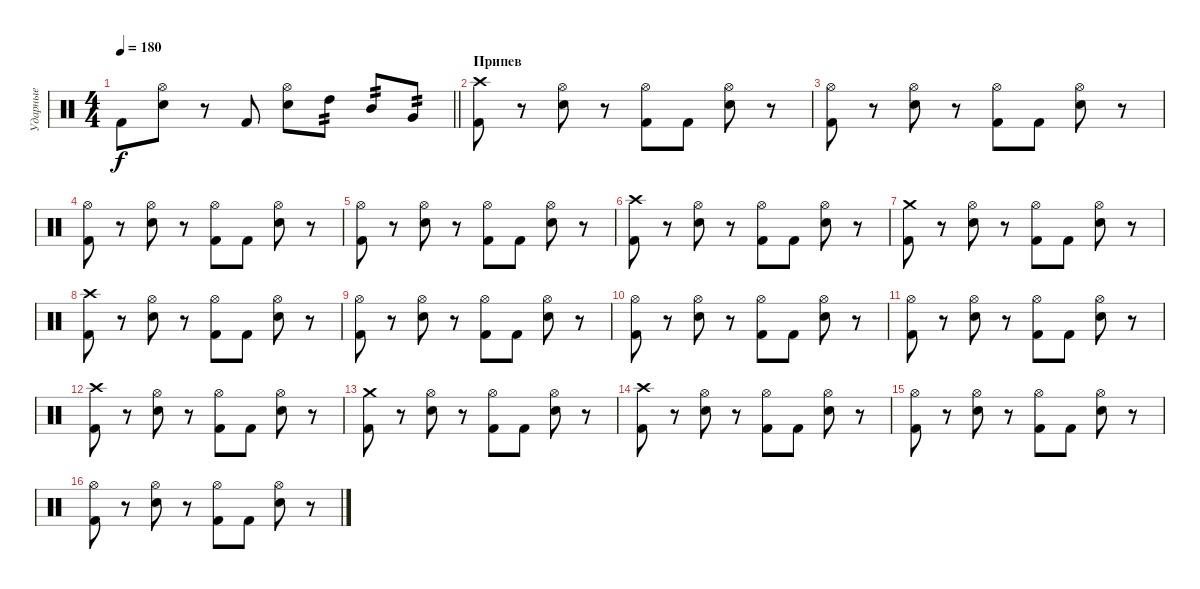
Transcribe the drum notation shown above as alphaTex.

\track ("Ударные" "Ударные") {instrument percussion}
\staff {score}
\articulation defaults
\ts (4 4)
\tempo 180
\clef neutral
\barLineRight lightlight
\ks c "Kick (hit) 2".8{dy f}
("Hi-Hat (open)" "Electric Snare (hit)").8 r.8 "Kick (hit) 2".8 ("Hi-Hat (open)" "Electric Snare (hit)").8 "High Tom (hit)".8{tp 2} "Mid Tom (hit)".8{tp 2} "Very Low Tom (hit)".8{tp 2} |
\section ("" "Припев")
("Crash high (hit)" "Kick (hit) 2").8 r.8 ("Hi-Hat (open)" "Electric Snare (hit)").8 r.8 ("Hi-Hat (open)" "Kick (hit) 2").8 "Kick (hit) 2".8 ("Hi-Hat (open)" "Electric Snare (hit)").8 r.8 |
("Hi-Hat (open)" "Kick (hit) 2").8 r.8 ("Hi-Hat (open)" "Electric Snare (hit)").8 r.8 ("Hi-Hat (open)" "Kick (hit) 2").8 "Kick (hit) 2".8 ("Hi-Hat (open)" "Electric Snare (hit)").8 r.8 |
("Hi-Hat (open)" "Kick (hit) 2").8 r.8 ("Hi-Hat (open)" "Electric Snare (hit)").8 r.8 ("Hi-Hat (open)" "Kick (hit) 2").8 "Kick (hit) 2".8 ("Hi-Hat (open)" "Electric Snare (hit)").8 r.8 |
("Hi-Hat (open)" "Kick (hit) 2").8 r.8 ("Hi-Hat (open)" "Electric Snare (hit)").8 r.8 ("Hi-Hat (open)" "Kick (hit) 2").8 "Kick (hit) 2".8 ("Hi-Hat (open)" "Electric Snare (hit)").8 r.8 |
("Crash high (hit)" "Kick (hit) 2").8 r.8 ("Hi-Hat (open)" "Electric Snare (hit)").8 r.8 ("Hi-Hat (open)" "Kick (hit) 2").8 "Kick (hit) 2".8 ("Hi-Hat (open)" "Electric Snare (hit)").8 r.8 |
("Crash medium (hit)" "Kick (hit) 2").8 r.8 ("Hi-Hat (open)" "Electric Snare (hit)").8 r.8 ("Hi-Hat (open)" "Kick (hit) 2").8 "Kick (hit) 2".8 ("Hi-Hat (open)" "Electric Snare (hit)").8 r.8 |
("Crash high (hit)" "Kick (hit) 2").8 r.8 ("Hi-Hat (open)" "Electric Snare (hit)").8 r.8 ("Hi-Hat (open)" "Kick (hit) 2").8 "Kick (hit) 2".8 ("Hi-Hat (open)" "Electric Snare (hit)").8 r.8 |
("Hi-Hat (open)" "Kick (hit) 2").8 r.8 ("Hi-Hat (open)" "Electric Snare (hit)").8 r.8 ("Hi-Hat (open)" "Kick (hit) 2").8 "Kick (hit) 2".8 ("Hi-Hat (open)" "Electric Snare (hit)").8 r.8 |
("Hi-Hat (open)" "Kick (hit) 2").8 r.8 ("Hi-Hat (open)" "Electric Snare (hit)").8 r.8 ("Hi-Hat (open)" "Kick (hit) 2").8 "Kick (hit) 2".8 ("Hi-Hat (open)" "Electric Snare (hit)").8 r.8 |
("Hi-Hat (open)" "Kick (hit) 2").8 r.8 ("Hi-Hat (open)" "Electric Snare (hit)").8 r.8 ("Hi-Hat (open)" "Kick (hit) 2").8 "Kick (hit) 2".8 ("Hi-Hat (open)" "Electric Snare (hit)").8 r.8 |
("Crash high (hit)" "Kick (hit) 2").8 r.8 ("Hi-Hat (open)" "Electric Snare (hit)").8 r.8 ("Hi-Hat (open)" "Kick (hit) 2").8 "Kick (hit) 2".8 ("Hi-Hat (open)" "Electric Snare (hit)").8 r.8 |
("Crash medium (hit)" "Kick (hit) 2").8 r.8 ("Hi-Hat (open)" "Electric Snare (hit)").8 r.8 ("Hi-Hat (open)" "Kick (hit) 2").8 "Kick (hit) 2".8 ("Hi-Hat (open)" "Electric Snare (hit)").8 r.8 |
("Crash high (hit)" "Kick (hit) 2").8 r.8 ("Hi-Hat (open)" "Electric Snare (hit)").8 r.8 ("Hi-Hat (open)" "Kick (hit) 2").8 "Kick (hit) 2".8 ("Hi-Hat (open)" "Electric Snare (hit)").8 r.8 |
("Hi-Hat (open)" "Kick (hit) 2").8 r.8 ("Hi-Hat (open)" "Electric Snare (hit)").8 r.8 ("Hi-Hat (open)" "Kick (hit) 2").8 "Kick (hit) 2".8 ("Hi-Hat (open)" "Electric Snare (hit)").8 r.8 |
("Hi-Hat (open)" "Kick (hit) 2").8 r.8 ("Hi-Hat (open)" "Electric Snare (hit)").8 r.8 ("Hi-Hat (open)" "Kick (hit) 2").8 "Kick (hit) 2".8 ("Hi-Hat (open)" "Electric Snare (hit)").8 r.8
